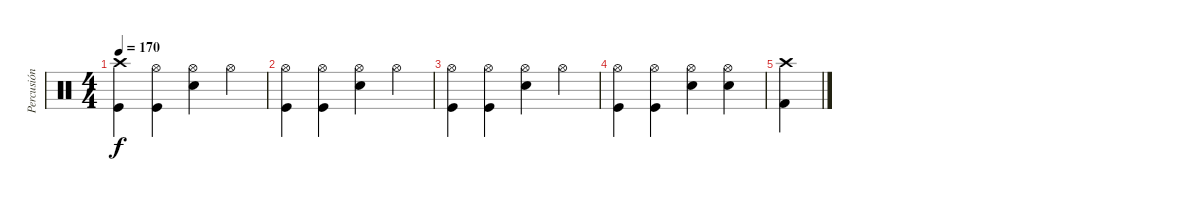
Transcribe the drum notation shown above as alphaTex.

\track ("Percusión" "Percusión") {instrument percussion}
\staff {score}
\articulation defaults
\ts (4 4)
\tempo 170
\clef neutral
\ks c
("Crash high (hit)" "Kick (hit)").4{dy f} ("Hi-Hat (open)" "Kick (hit)").4 ("Hi-Hat (open)" "Electric Snare (hit)").4 "Hi-Hat (open)".4 |
("Hi-Hat (open)" "Kick (hit)").4 ("Hi-Hat (open)" "Kick (hit)").4 ("Hi-Hat (open)" "Electric Snare (hit)").4 "Hi-Hat (open)".4 |
("Hi-Hat (open)" "Kick (hit)").4 ("Hi-Hat (open)" "Kick (hit)").4 ("Hi-Hat (open)" "Electric Snare (hit)").4 "Hi-Hat (open)".4 |
("Hi-Hat (open)" "Kick (hit)").4 ("Hi-Hat (open)" "Kick (hit)").4 ("Hi-Hat (open)" "Electric Snare (hit)").4 ("Hi-Hat (open)" "Electric Snare (hit)").4 |
("Crash high (hit)" "Kick (hit) 2").4
